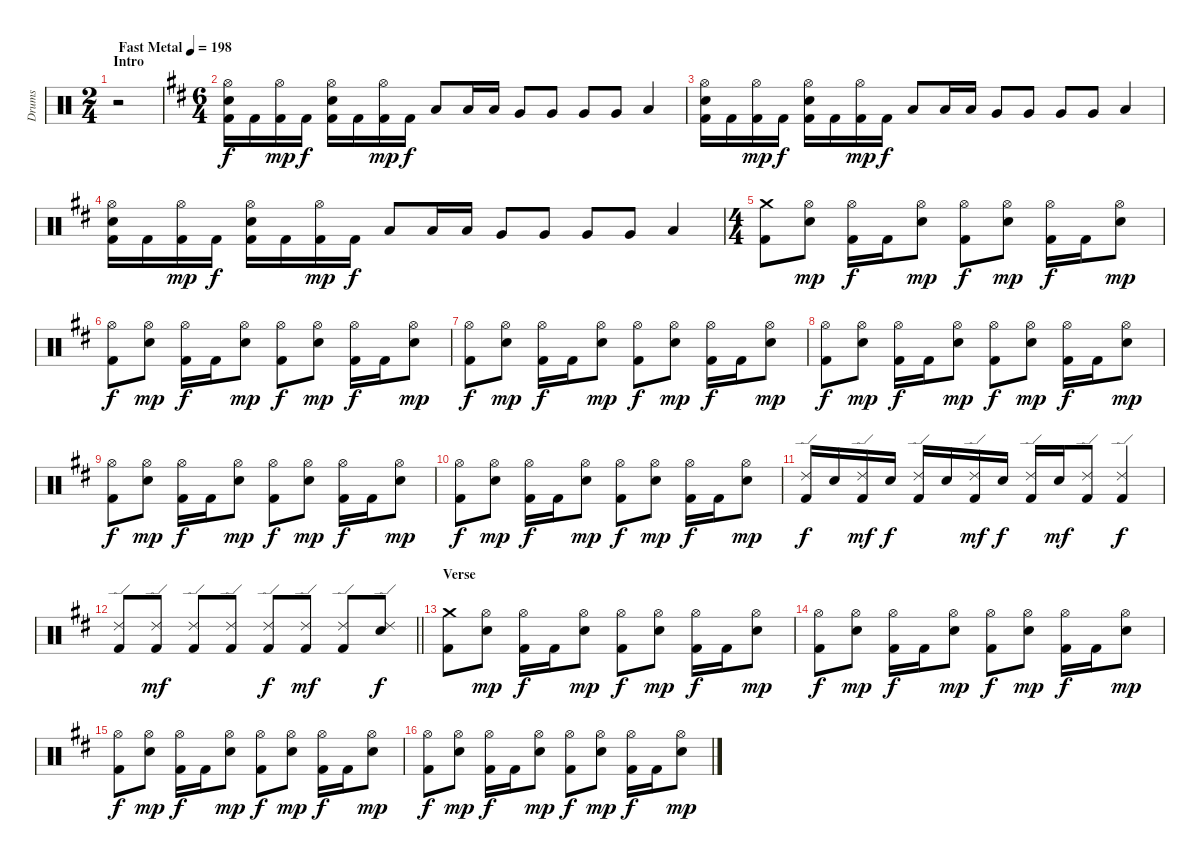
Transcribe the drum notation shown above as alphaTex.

\track ("Drums" "Drums") {instrument percussion}
\staff {score}
\articulation defaults
\ts (2 4)
\section ("" "Intro")
\tempo (198 "Fast Metal")
\clef neutral
\ks c
r.2{dy f} |
\ts (6 4)
\ks d
("Hi-Hat (open)" "Snare (hit) 2" "Kick (hit) 2").16 "Kick (hit) 2".16 ("Hi-Hat (open)" "Kick (hit) 2").16{dy mp} "Kick (hit) 2".16{dy f} ("Hi-Hat (open)" "Snare (hit) 2" "Kick (hit) 2").16 "Kick (hit) 2".16 ("Hi-Hat (open)" "Kick (hit) 2").16{dy mp} "Kick (hit) 2".16{dy f} "Low Tom (hit)".8 "Low Tom (hit)".16 "Low Tom (hit)".16 "Very Low Tom (hit)".8 "Very Low Tom (hit)".8 "Very Low Tom (hit)".8 "Very Low Tom (hit)".8 "Low Floor Tom (hit)".4 |
("Hi-Hat (open)" "Snare (hit) 2" "Kick (hit) 2").16 "Kick (hit) 2".16 ("Hi-Hat (open)" "Kick (hit) 2").16{dy mp} "Kick (hit) 2".16{dy f} ("Hi-Hat (open)" "Snare (hit) 2" "Kick (hit) 2").16 "Kick (hit) 2".16 ("Hi-Hat (open)" "Kick (hit) 2").16{dy mp} "Kick (hit) 2".16{dy f} "Low Tom (hit)".8 "Low Tom (hit)".16 "Low Tom (hit)".16 "Very Low Tom (hit)".8 "Very Low Tom (hit)".8 "Very Low Tom (hit)".8 "Very Low Tom (hit)".8 "Low Floor Tom (hit)".4 |
("Hi-Hat (open)" "Snare (hit) 2" "Kick (hit) 2").16 "Kick (hit) 2".16 ("Hi-Hat (open)" "Kick (hit) 2").16{dy mp} "Kick (hit) 2".16{dy f} ("Hi-Hat (open)" "Snare (hit) 2" "Kick (hit) 2").16 "Kick (hit) 2".16 ("Hi-Hat (open)" "Kick (hit) 2").16{dy mp} "Kick (hit) 2".16{dy f} "Low Tom (hit)".8 "Low Tom (hit)".16 "Low Tom (hit)".16 "Very Low Tom (hit)".8 "Very Low Tom (hit)".8 "Very Low Tom (hit)".8 "Very Low Tom (hit)".8 "Low Floor Tom (hit)".4 |
\ts (4 4)
("Crash medium (hit)" "Kick (hit) 2").8 ("Hi-Hat (open)" "Snare (hit) 2").8{dy mp} ("Hi-Hat (open)" "Kick (hit) 2").16{dy f} "Kick (hit) 2".16 ("Hi-Hat (open)" "Snare (hit) 2").8{dy mp} ("Hi-Hat (open)" "Kick (hit) 2").8{dy f} ("Hi-Hat (open)" "Snare (hit) 2").8{dy mp} ("Hi-Hat (open)" "Kick (hit) 2").16{dy f} "Kick (hit) 2".16 ("Hi-Hat (open)" "Snare (hit) 2").8{dy mp} |
("Hi-Hat (open)" "Kick (hit) 2").8{dy f} ("Hi-Hat (open)" "Snare (hit) 2").8{dy mp} ("Hi-Hat (open)" "Kick (hit) 2").16{dy f} "Kick (hit) 2".16 ("Hi-Hat (open)" "Snare (hit) 2").8{dy mp} ("Hi-Hat (open)" "Kick (hit) 2").8{dy f} ("Hi-Hat (open)" "Snare (hit) 2").8{dy mp} ("Hi-Hat (open)" "Kick (hit) 2").16{dy f} "Kick (hit) 2".16 ("Hi-Hat (open)" "Snare (hit) 2").8{dy mp} |
("Hi-Hat (open)" "Kick (hit) 2").8{dy f} ("Hi-Hat (open)" "Snare (hit) 2").8{dy mp} ("Hi-Hat (open)" "Kick (hit) 2").16{dy f} "Kick (hit) 2".16 ("Hi-Hat (open)" "Snare (hit) 2").8{dy mp} ("Hi-Hat (open)" "Kick (hit) 2").8{dy f} ("Hi-Hat (open)" "Snare (hit) 2").8{dy mp} ("Hi-Hat (open)" "Kick (hit) 2").16{dy f} "Kick (hit) 2".16 ("Hi-Hat (open)" "Snare (hit) 2").8{dy mp} |
("Hi-Hat (open)" "Kick (hit) 2").8{dy f} ("Hi-Hat (open)" "Snare (hit) 2").8{dy mp} ("Hi-Hat (open)" "Kick (hit) 2").16{dy f} "Kick (hit) 2".16 ("Hi-Hat (open)" "Snare (hit) 2").8{dy mp} ("Hi-Hat (open)" "Kick (hit) 2").8{dy f} ("Hi-Hat (open)" "Snare (hit) 2").8{dy mp} ("Hi-Hat (open)" "Kick (hit) 2").16{dy f} "Kick (hit) 2".16 ("Hi-Hat (open)" "Snare (hit) 2").8{dy mp} |
("Hi-Hat (open)" "Kick (hit) 2").8{dy f} ("Hi-Hat (open)" "Snare (hit) 2").8{dy mp} ("Hi-Hat (open)" "Kick (hit) 2").16{dy f} "Kick (hit) 2".16 ("Hi-Hat (open)" "Snare (hit) 2").8{dy mp} ("Hi-Hat (open)" "Kick (hit) 2").8{dy f} ("Hi-Hat (open)" "Snare (hit) 2").8{dy mp} ("Hi-Hat (open)" "Kick (hit) 2").16{dy f} "Kick (hit) 2".16 ("Hi-Hat (open)" "Snare (hit) 2").8{dy mp} |
("Hi-Hat (open)" "Kick (hit) 2").8{dy f} ("Hi-Hat (open)" "Snare (hit) 2").8{dy mp} ("Hi-Hat (open)" "Kick (hit) 2").16{dy f} "Kick (hit) 2".16 ("Hi-Hat (open)" "Snare (hit) 2").8{dy mp} ("Hi-Hat (open)" "Kick (hit) 2").8{dy f} ("Hi-Hat (open)" "Snare (hit) 2").8{dy mp} ("Hi-Hat (open)" "Kick (hit) 2").16{dy f} "Kick (hit) 2".16 ("Hi-Hat (open)" "Snare (hit) 2").8{dy mp} |
("Ride (edge) 2" "Kick (hit) 2").16{dy f} "Snare (hit) 2".16 ("Ride (edge) 2" "Kick (hit) 2").16{dy mf} "Snare (hit) 2".16{dy f} ("Ride (edge) 2" "Kick (hit) 2").16 "Snare (hit) 2".16 ("Ride (edge) 2" "Kick (hit) 2").16{dy mf} "Snare (hit) 2".16{dy f} ("Ride (edge) 2" "Kick (hit) 2").16 "Snare (hit) 2".16{dy mf} ("Ride (edge) 2" "Kick (hit) 2").8 ("Ride (edge) 2" "Kick (hit) 2").4{dy f} |
\barLineRight lightlight
("Ride (edge) 2" "Kick (hit) 2").8 ("Ride (edge) 2" "Kick (hit) 2").8{dy mf} ("Ride (edge) 2" "Kick (hit) 2").8 ("Ride (edge) 2" "Kick (hit) 2").8 ("Ride (edge) 2" "Kick (hit) 2").8{dy f} ("Ride (edge) 2" "Kick (hit) 2").8{dy mf} ("Ride (edge) 2" "Kick (hit) 2").8 ("Ride (edge) 2" "Snare (hit) 2").8{dy f} |
\section ("" "Verse ")
("Crash medium (hit)" "Kick (hit) 2").8 ("Hi-Hat (open)" "Snare (hit) 2").8{dy mp} ("Hi-Hat (open)" "Kick (hit) 2").16{dy f} "Kick (hit) 2".16 ("Hi-Hat (open)" "Snare (hit) 2").8{dy mp} ("Hi-Hat (open)" "Kick (hit) 2").8{dy f} ("Hi-Hat (open)" "Snare (hit) 2").8{dy mp} ("Hi-Hat (open)" "Kick (hit) 2").16{dy f} "Kick (hit) 2".16 ("Hi-Hat (open)" "Snare (hit) 2").8{dy mp} |
("Hi-Hat (open)" "Kick (hit) 2").8{dy f} ("Hi-Hat (open)" "Snare (hit) 2").8{dy mp} ("Hi-Hat (open)" "Kick (hit) 2").16{dy f} "Kick (hit) 2".16 ("Hi-Hat (open)" "Snare (hit) 2").8{dy mp} ("Hi-Hat (open)" "Kick (hit) 2").8{dy f} ("Hi-Hat (open)" "Snare (hit) 2").8{dy mp} ("Hi-Hat (open)" "Kick (hit) 2").16{dy f} "Kick (hit) 2".16 ("Hi-Hat (open)" "Snare (hit) 2").8{dy mp} |
("Hi-Hat (open)" "Kick (hit) 2").8{dy f} ("Hi-Hat (open)" "Snare (hit) 2").8{dy mp} ("Hi-Hat (open)" "Kick (hit) 2").16{dy f} "Kick (hit) 2".16 ("Hi-Hat (open)" "Snare (hit) 2").8{dy mp} ("Hi-Hat (open)" "Kick (hit) 2").8{dy f} ("Hi-Hat (open)" "Snare (hit) 2").8{dy mp} ("Hi-Hat (open)" "Kick (hit) 2").16{dy f} "Kick (hit) 2".16 ("Hi-Hat (open)" "Snare (hit) 2").8{dy mp} |
("Hi-Hat (open)" "Kick (hit) 2").8{dy f} ("Hi-Hat (open)" "Snare (hit) 2").8{dy mp} ("Hi-Hat (open)" "Kick (hit) 2").16{dy f} "Kick (hit) 2".16 ("Hi-Hat (open)" "Snare (hit) 2").8{dy mp} ("Hi-Hat (open)" "Kick (hit) 2").8{dy f} ("Hi-Hat (open)" "Snare (hit) 2").8{dy mp} ("Hi-Hat (open)" "Kick (hit) 2").16{dy f} "Kick (hit) 2".16 ("Hi-Hat (open)" "Snare (hit) 2").8{dy mp}
